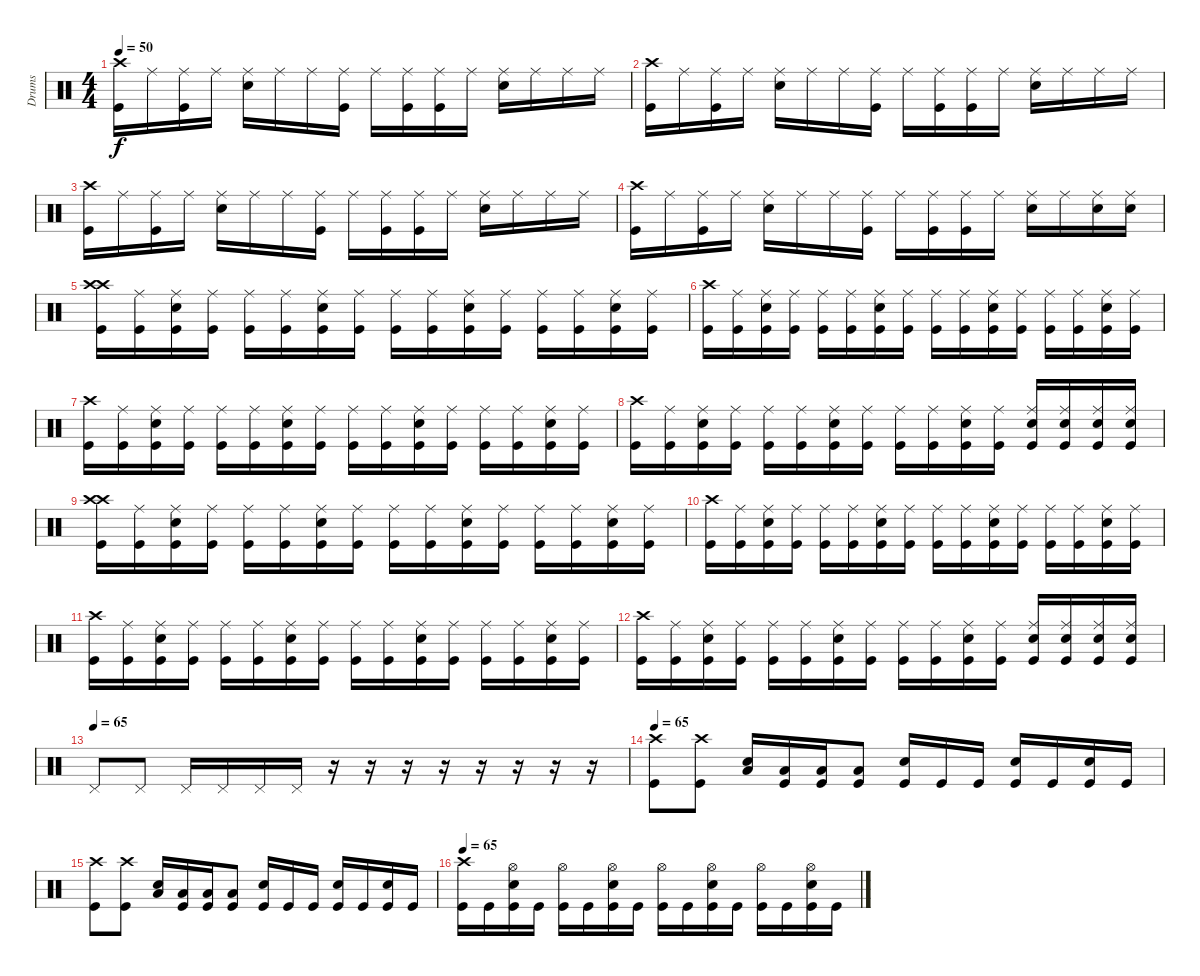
\track ("Drums" "Drums") {instrument percussion}
\staff {score}
\articulation defaults
\ts (4 4)
\tempo 50
\clef neutral
\ks c
("Crash high (hit)" "Kick (hit)").16{dy f} "Ride (middle)".16 ("Ride (middle)" "Kick (hit)").16 "Ride (middle)".16 ("Ride (middle)" "Electric Snare (hit)").16 "Ride (middle)".16 "Ride (middle)".16 ("Ride (middle)" "Kick (hit)").16 "Ride (middle)".16 ("Ride (middle)" "Kick (hit)").16 ("Ride (middle)" "Kick (hit)").16 "Ride (middle)".16 ("Ride (middle)" "Electric Snare (hit)").16 "Ride (middle)".16 "Ride (middle)".16 "Ride (middle)".16 |
("Crash high (hit)" "Kick (hit)").16 "Ride (middle)".16 ("Ride (middle)" "Kick (hit)").16 "Ride (middle)".16 ("Ride (middle)" "Electric Snare (hit)").16 "Ride (middle)".16 "Ride (middle)".16 ("Ride (middle)" "Kick (hit)").16 "Ride (middle)".16 ("Ride (middle)" "Kick (hit)").16 ("Ride (middle)" "Kick (hit)").16 "Ride (middle)".16 ("Ride (middle)" "Electric Snare (hit)").16 "Ride (middle)".16 "Ride (middle)".16 "Ride (middle)".16 |
("Crash high (hit)" "Kick (hit)").16 "Ride (middle)".16 ("Ride (middle)" "Kick (hit)").16 "Ride (middle)".16 ("Ride (middle)" "Electric Snare (hit)").16 "Ride (middle)".16 "Ride (middle)".16 ("Ride (middle)" "Kick (hit)").16 "Ride (middle)".16 ("Ride (middle)" "Kick (hit)").16 ("Ride (middle)" "Kick (hit)").16 "Ride (middle)".16 ("Ride (middle)" "Electric Snare (hit)").16 "Ride (middle)".16 "Ride (middle)".16 "Ride (middle)".16 |
("Crash high (hit)" "Kick (hit)").16 "Ride (middle)".16 ("Ride (middle)" "Kick (hit)").16 "Ride (middle)".16 ("Ride (middle)" "Electric Snare (hit)").16 "Ride (middle)".16 "Ride (middle)".16 ("Ride (middle)" "Kick (hit)").16 "Ride (middle)".16 ("Ride (middle)" "Kick (hit)").16 ("Ride (middle)" "Kick (hit)").16 "Ride (middle)".16 ("Ride (middle)" "Electric Snare (hit)").16 "Ride (middle)".16 ("Ride (middle)" "Electric Snare (hit)").16 ("Ride (middle)" "Electric Snare (hit)").16 |
("Crash high (hit)" "Crash high (hit)" "Kick (hit)").16{volume 13} ("Ride (middle)" "Kick (hit)").16 ("Ride (middle)" "Electric Snare (hit)" "Kick (hit)").16 ("Ride (middle)" "Kick (hit)").16 ("Ride (middle)" "Kick (hit)").16 ("Ride (middle)" "Kick (hit)").16 ("Ride (middle)" "Electric Snare (hit)" "Kick (hit)").16 ("Ride (middle)" "Kick (hit)").16 ("Ride (middle)" "Kick (hit)").16 ("Ride (middle)" "Kick (hit)").16 ("Ride (middle)" "Electric Snare (hit)" "Kick (hit)").16 ("Ride (middle)" "Kick (hit)").16 ("Ride (middle)" "Kick (hit)").16 ("Ride (middle)" "Kick (hit)").16 ("Ride (middle)" "Electric Snare (hit)" "Kick (hit)").16 ("Ride (middle)" "Kick (hit)").16 |
("Crash high (hit)" "Kick (hit)").16 ("Ride (middle)" "Kick (hit)").16 ("Ride (middle)" "Electric Snare (hit)" "Kick (hit)").16 ("Ride (middle)" "Kick (hit)").16 ("Ride (middle)" "Kick (hit)").16 ("Ride (middle)" "Kick (hit)").16 ("Ride (middle)" "Electric Snare (hit)" "Kick (hit)").16 ("Ride (middle)" "Kick (hit)").16 ("Ride (middle)" "Kick (hit)").16 ("Ride (middle)" "Kick (hit)").16 ("Ride (middle)" "Electric Snare (hit)" "Kick (hit)").16 ("Ride (middle)" "Kick (hit)").16 ("Ride (middle)" "Kick (hit)").16 ("Ride (middle)" "Kick (hit)").16 ("Ride (middle)" "Electric Snare (hit)" "Kick (hit)").16 ("Ride (middle)" "Kick (hit)").16 |
("Crash high (hit)" "Kick (hit)").16 ("Ride (middle)" "Kick (hit)").16 ("Ride (middle)" "Electric Snare (hit)" "Kick (hit)").16 ("Ride (middle)" "Kick (hit)").16 ("Ride (middle)" "Kick (hit)").16 ("Ride (middle)" "Kick (hit)").16 ("Ride (middle)" "Electric Snare (hit)" "Kick (hit)").16 ("Ride (middle)" "Kick (hit)").16 ("Ride (middle)" "Kick (hit)").16 ("Ride (middle)" "Kick (hit)").16 ("Ride (middle)" "Electric Snare (hit)" "Kick (hit)").16 ("Ride (middle)" "Kick (hit)").16 ("Ride (middle)" "Kick (hit)").16 ("Ride (middle)" "Kick (hit)").16 ("Ride (middle)" "Electric Snare (hit)" "Kick (hit)").16 ("Ride (middle)" "Kick (hit)").16 |
("Crash high (hit)" "Kick (hit)").16 ("Ride (middle)" "Kick (hit)").16 ("Ride (middle)" "Electric Snare (hit)" "Kick (hit)").16 ("Ride (middle)" "Kick (hit)").16 ("Ride (middle)" "Kick (hit)").16 ("Ride (middle)" "Kick (hit)").16 ("Ride (middle)" "Electric Snare (hit)" "Kick (hit)").16 ("Ride (middle)" "Kick (hit)").16 ("Ride (middle)" "Kick (hit)").16 ("Ride (middle)" "Kick (hit)").16 ("Ride (middle)" "Electric Snare (hit)" "Kick (hit)").16 ("Ride (middle)" "Kick (hit)").16 ("Ride (middle)" "Electric Snare (hit)" "Kick (hit)").16 ("Ride (middle)" "Electric Snare (hit)" "Kick (hit)").16 ("Ride (middle)" "Electric Snare (hit)" "Kick (hit)").16 ("Ride (middle)" "Electric Snare (hit)" "Kick (hit)").16 |
("Crash high (hit)" "Crash high (hit)" "Kick (hit)").16{volume 13} ("Ride (middle)" "Kick (hit)").16 ("Ride (middle)" "Electric Snare (hit)" "Kick (hit)").16 ("Ride (middle)" "Kick (hit)").16 ("Ride (middle)" "Kick (hit)").16 ("Ride (middle)" "Kick (hit)").16 ("Ride (middle)" "Electric Snare (hit)" "Kick (hit)").16 ("Ride (middle)" "Kick (hit)").16 ("Ride (middle)" "Kick (hit)").16 ("Ride (middle)" "Kick (hit)").16 ("Ride (middle)" "Electric Snare (hit)" "Kick (hit)").16 ("Ride (middle)" "Kick (hit)").16 ("Ride (middle)" "Kick (hit)").16 ("Ride (middle)" "Kick (hit)").16 ("Ride (middle)" "Electric Snare (hit)" "Kick (hit)").16 ("Ride (middle)" "Kick (hit)").16 |
("Crash high (hit)" "Kick (hit)").16 ("Ride (middle)" "Kick (hit)").16 ("Ride (middle)" "Electric Snare (hit)" "Kick (hit)").16 ("Ride (middle)" "Kick (hit)").16 ("Ride (middle)" "Kick (hit)").16 ("Ride (middle)" "Kick (hit)").16 ("Ride (middle)" "Electric Snare (hit)" "Kick (hit)").16 ("Ride (middle)" "Kick (hit)").16 ("Ride (middle)" "Kick (hit)").16 ("Ride (middle)" "Kick (hit)").16 ("Ride (middle)" "Electric Snare (hit)" "Kick (hit)").16 ("Ride (middle)" "Kick (hit)").16 ("Ride (middle)" "Kick (hit)").16 ("Ride (middle)" "Kick (hit)").16 ("Ride (middle)" "Electric Snare (hit)" "Kick (hit)").16 ("Ride (middle)" "Kick (hit)").16 |
("Crash high (hit)" "Kick (hit)").16 ("Ride (middle)" "Kick (hit)").16 ("Ride (middle)" "Electric Snare (hit)" "Kick (hit)").16 ("Ride (middle)" "Kick (hit)").16 ("Ride (middle)" "Kick (hit)").16 ("Ride (middle)" "Kick (hit)").16 ("Ride (middle)" "Electric Snare (hit)" "Kick (hit)").16 ("Ride (middle)" "Kick (hit)").16 ("Ride (middle)" "Kick (hit)").16 ("Ride (middle)" "Kick (hit)").16 ("Ride (middle)" "Electric Snare (hit)" "Kick (hit)").16 ("Ride (middle)" "Kick (hit)").16 ("Ride (middle)" "Kick (hit)").16 ("Ride (middle)" "Kick (hit)").16 ("Ride (middle)" "Electric Snare (hit)" "Kick (hit)").16 ("Ride (middle)" "Kick (hit)").16 |
("Crash high (hit)" "Kick (hit)").16 ("Ride (middle)" "Kick (hit)").16 ("Ride (middle)" "Electric Snare (hit)" "Kick (hit)").16 ("Ride (middle)" "Kick (hit)").16 ("Ride (middle)" "Kick (hit)").16 ("Ride (middle)" "Kick (hit)").16 ("Ride (middle)" "Electric Snare (hit)" "Kick (hit)").16 ("Ride (middle)" "Kick (hit)").16 ("Ride (middle)" "Kick (hit)").16 ("Ride (middle)" "Kick (hit)").16 ("Ride (middle)" "Electric Snare (hit)" "Kick (hit)").16 ("Ride (middle)" "Kick (hit)").16 ("Ride (middle)" "Electric Snare (hit)" "Kick (hit)").16 ("Ride (middle)" "Electric Snare (hit)" "Kick (hit)").16 ("Ride (middle)" "Electric Snare (hit)" "Kick (hit)").16 ("Ride (middle)" "Electric Snare (hit)" "Kick (hit)").16 |
\tempo (65)
"Pedal Hi-Hat (hit)".8 "Pedal Hi-Hat (hit)".8 "Pedal Hi-Hat (hit)".16 "Pedal Hi-Hat (hit)".16 "Pedal Hi-Hat (hit)".16 "Pedal Hi-Hat (hit)".16 r.16 r.16 r.16 r.16 r.16 r.16 r.16 r.16 |
\tempo 65
("Crash high (hit)" "Kick (hit)").8 ("Crash high (hit)" "Kick (hit)").8 ("Low Tom (hit)" "Electric Snare (hit)").16 ("Low Tom (hit)" "Kick (hit)").16 ("Low Tom (hit)" "Kick (hit)").16 ("Low Tom (hit)" "Kick (hit)").8 ("Electric Snare (hit)" "Kick (hit)").16 "Kick (hit)".16 "Kick (hit)".16 ("Electric Snare (hit)" "Kick (hit)").16 "Kick (hit)".16 ("Electric Snare (hit)" "Kick (hit)").16 "Kick (hit)".16 |
("Crash high (hit)" "Kick (hit)").8 ("Crash high (hit)" "Kick (hit)").8 ("Low Tom (hit)" "Electric Snare (hit)").16 ("Low Tom (hit)" "Kick (hit)").16 ("Low Tom (hit)" "Kick (hit)").16 ("Low Tom (hit)" "Kick (hit)").8 ("Electric Snare (hit)" "Kick (hit)").16 "Kick (hit)".16 "Kick (hit)".16 ("Electric Snare (hit)" "Kick (hit)").16 "Kick (hit)".16 ("Electric Snare (hit)" "Kick (hit)").16 "Kick (hit)".16 |
\tempo 65
("Crash high (hit)" "Kick (hit)").16 "Kick (hit)".16 ("Hi-Hat (open)" "Electric Snare (hit)" "Kick (hit)").16 "Kick (hit)".16 ("Hi-Hat (open)" "Kick (hit)").16 "Kick (hit)".16 ("Hi-Hat (open)" "Electric Snare (hit)" "Kick (hit)").16 "Kick (hit)".16 ("Hi-Hat (open)" "Kick (hit)").16 "Kick (hit)".16 ("Hi-Hat (open)" "Electric Snare (hit)" "Kick (hit)").16 "Kick (hit)".16 ("Hi-Hat (open)" "Kick (hit)").16 "Kick (hit)".16 ("Hi-Hat (open)" "Electric Snare (hit)" "Kick (hit)").16 "Kick (hit)".16
